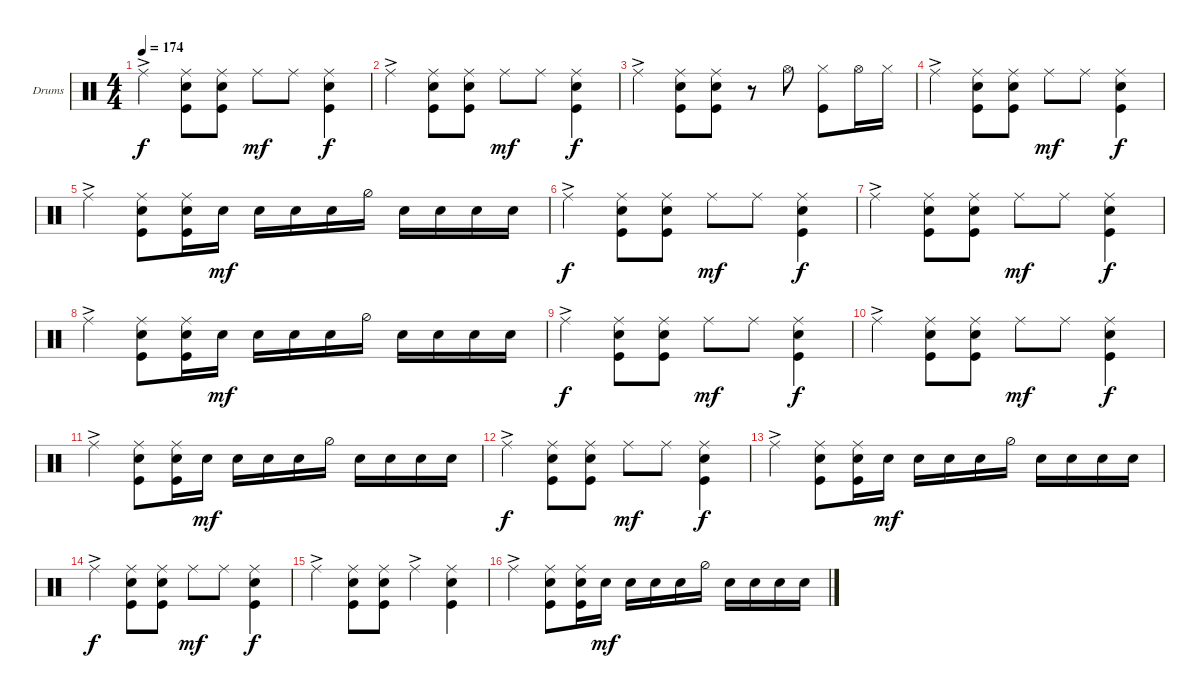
\defaultSystemsLayout 4
\bracketExtendMode groupsimilarinstruments
\firstSystemTrackNameOrientation horizontal
\otherSystemsTrackNameOrientation horizontal
\track ("Drumkit (Liam Finn)" "Drums") {instrument percussion}
\staff {score}
\articulation defaults
\ts (4 4)
\tempo 174
\clef neutral
\scale
0.333333
\ks c "Ride (middle)"{ac}.4{dy f}
("Snare (hit) 2" "Kick (hit)" "Ride (middle)").8 ("Snare (hit) 2" "Kick (hit)" "Ride (middle)").8 "Ride (middle)".8{dy mf} "Ride (middle)".8 ("Snare (hit) 2" "Kick (hit)" "Ride (middle)").4{dy f} |
\scale
0.333333 "Ride (middle)"{ac}.4 ("Snare (hit) 2" "Kick (hit)" "Ride (middle)").8 ("Snare (hit) 2" "Kick (hit)" "Ride (middle)").8 "Ride (middle)".8{dy mf} "Ride (middle)".8 ("Snare (hit) 2" "Kick (hit)" "Ride (middle)").4{dy f} |
\scale
0.333333 "Ride (middle)"{ac}.4 ("Snare (hit) 2" "Kick (hit)" "Ride (middle)").8 ("Snare (hit) 2" "Kick (hit)" "Ride (middle)").8 r.8 "Hi-Hat (open)".8 ("Hi-Hat (closed)" "Kick (hit)").8 "Hi-Hat (open)".16 "Hi-Hat (closed)".16 |
\scale
0.333333 "Ride (middle)"{ac}.4 ("Snare (hit) 2" "Kick (hit)" "Ride (middle)").8 ("Snare (hit) 2" "Kick (hit)" "Ride (middle)").8 "Ride (middle)".8{dy mf} "Ride (middle)".8 ("Snare (hit) 2" "Kick (hit)" "Ride (middle)").4{dy f} |
\scale
0.333333 "Ride (middle)"{ac}.4 ("Snare (hit) 2" "Kick (hit)" "Ride (middle)").8 ("Snare (hit) 2" "Kick (hit)" "Ride (middle)").16 "Snare (hit) 2".16{dy mf} "Snare (hit) 2".16 "Snare (hit) 2".16 "Snare (hit) 2".16 "Hi-Hat (half)".16 "Snare (hit) 2".16 "Snare (hit) 2".16 "Snare (hit) 2".16 "Snare (hit) 2".16 |
\scale
0.333333 "Ride (middle)"{ac}.4{dy f} ("Snare (hit) 2" "Kick (hit)" "Ride (middle)").8 ("Snare (hit) 2" "Kick (hit)" "Ride (middle)").8 "Ride (middle)".8{dy mf} "Ride (middle)".8 ("Snare (hit) 2" "Kick (hit)" "Ride (middle)").4{dy f} |
\scale
0.333333 "Ride (middle)"{ac}.4 ("Snare (hit) 2" "Kick (hit)" "Ride (middle)").8 ("Snare (hit) 2" "Kick (hit)" "Ride (middle)").8 "Ride (middle)".8{dy mf} "Ride (middle)".8 ("Snare (hit) 2" "Kick (hit)" "Ride (middle)").4{dy f} |
\scale
0.333333 "Ride (middle)"{ac}.4 ("Snare (hit) 2" "Kick (hit)" "Ride (middle)").8 ("Snare (hit) 2" "Kick (hit)" "Ride (middle)").16 "Snare (hit) 2".16{dy mf} "Snare (hit) 2".16 "Snare (hit) 2".16 "Snare (hit) 2".16 "Hi-Hat (half)".16 "Snare (hit) 2".16 "Snare (hit) 2".16 "Snare (hit) 2".16 "Snare (hit) 2".16 |
\scale
0.333333 "Ride (middle)"{ac}.4{dy f} ("Snare (hit) 2" "Kick (hit)" "Ride (middle)").8 ("Snare (hit) 2" "Kick (hit)" "Ride (middle)").8 "Ride (middle)".8{dy mf} "Ride (middle)".8 ("Snare (hit) 2" "Kick (hit)" "Ride (middle)").4{dy f} |
\scale
0.333333 "Ride (middle)"{ac}.4 ("Snare (hit) 2" "Kick (hit)" "Ride (middle)").8 ("Snare (hit) 2" "Kick (hit)" "Ride (middle)").8 "Ride (middle)".8{dy mf} "Ride (middle)".8 ("Snare (hit) 2" "Kick (hit)" "Ride (middle)").4{dy f} |
\scale
0.333333 "Ride (middle)"{ac}.4 ("Snare (hit) 2" "Kick (hit)" "Ride (middle)").8 ("Snare (hit) 2" "Kick (hit)" "Ride (middle)").16 "Snare (hit) 2".16{dy mf} "Snare (hit) 2".16 "Snare (hit) 2".16 "Snare (hit) 2".16 "Hi-Hat (half)".16 "Snare (hit) 2".16 "Snare (hit) 2".16 "Snare (hit) 2".16 "Snare (hit) 2".16 |
\scale
0.333333 "Ride (middle)"{ac}.4{dy f} ("Snare (hit) 2" "Kick (hit)" "Ride (middle)").8 ("Snare (hit) 2" "Kick (hit)" "Ride (middle)").8 "Ride (middle)".8{dy mf} "Ride (middle)".8 ("Snare (hit) 2" "Kick (hit)" "Ride (middle)").4{dy f} |
\scale
0.333333 "Ride (middle)"{ac}.4 ("Snare (hit) 2" "Kick (hit)" "Ride (middle)").8 ("Snare (hit) 2" "Kick (hit)" "Ride (middle)").16 "Snare (hit) 2".16{dy mf} "Snare (hit) 2".16 "Snare (hit) 2".16 "Snare (hit) 2".16 "Hi-Hat (half)".16 "Snare (hit) 2".16 "Snare (hit) 2".16 "Snare (hit) 2".16 "Snare (hit) 2".16 |
\scale
0.333333 "Ride (middle)"{ac}.4{dy f} ("Snare (hit) 2" "Kick (hit)" "Ride (middle)").8 ("Snare (hit) 2" "Kick (hit)" "Ride (middle)").8 "Ride (middle)".8{dy mf} "Ride (middle)".8 ("Snare (hit) 2" "Kick (hit)" "Ride (middle)").4{dy f} |
\scale
0.333333 "Ride (middle)"{ac}.4 ("Snare (hit) 2" "Kick (hit)" "Ride (middle)").8 ("Snare (hit) 2" "Kick (hit)" "Ride (middle)").8 "Ride (middle)"{ac}.4 ("Snare (hit) 2" "Kick (hit)" "Ride (middle)").4 |
\scale
0.333333 "Ride (middle)"{ac}.4 ("Snare (hit) 2" "Kick (hit)" "Ride (middle)").8 ("Snare (hit) 2" "Kick (hit)" "Ride (middle)").16 "Snare (hit) 2".16{dy mf} "Snare (hit) 2".16 "Snare (hit) 2".16 "Snare (hit) 2".16 "Hi-Hat (half)".16 "Snare (hit) 2".16 "Snare (hit) 2".16 "Snare (hit) 2".16 "Snare (hit) 2".16
